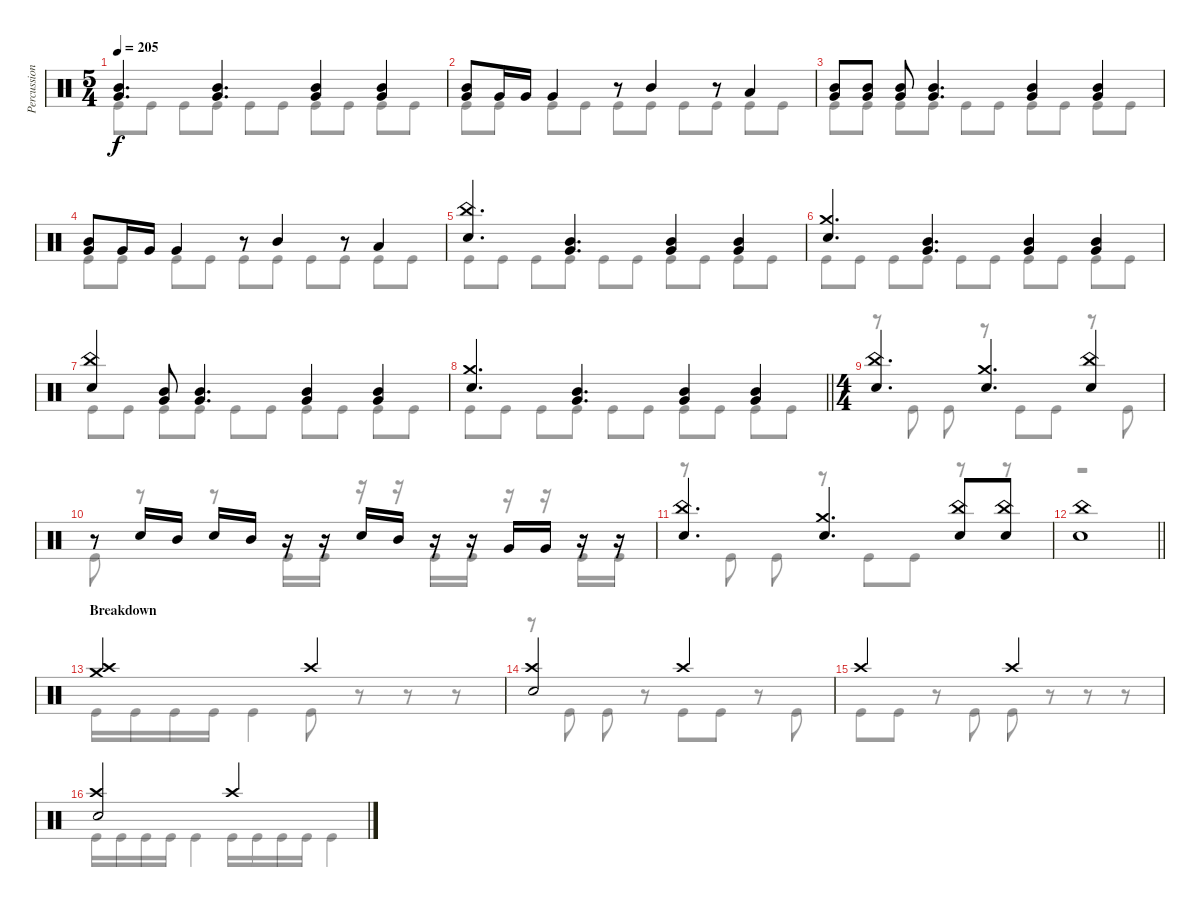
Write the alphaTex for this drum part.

\track ("Percussion" "Percussion") {instrument percussion}
\staff {score}
\articulation defaults
\voice
\ts (5 4)
\tempo 205
\clef neutral
\ks c
("Mid Tom (hit)" "Very Low Tom (hit)").4{d dy f} ("Mid Tom (hit)" "Very Low Tom (hit)").4{d} ("Mid Tom (hit)" "Very Low Tom (hit)").4 ("Mid Tom (hit)" "Very Low Tom (hit)").4 |
("Mid Tom (hit)" "Very Low Tom (hit)").8 "Very Low Tom (hit)".16 "Very Low Tom (hit)".16 "Very Low Tom (hit)".4 r.8 "Mid Tom (hit)".4 r.8 "Low Tom (hit)".4 |
("Mid Tom (hit)" "Very Low Tom (hit)").8 ("Mid Tom (hit)" "Very Low Tom (hit)").8 ("Mid Tom (hit)" "Very Low Tom (hit)").8 ("Mid Tom (hit)" "Very Low Tom (hit)").4{d} ("Mid Tom (hit)" "Very Low Tom (hit)").4 ("Mid Tom (hit)" "Very Low Tom (hit)").4 |
("Mid Tom (hit)" "Very Low Tom (hit)").8 "Very Low Tom (hit)".16 "Very Low Tom (hit)".16 "Very Low Tom (hit)".4 r.8 "Mid Tom (hit)".4 r.8 "Low Tom (hit)".4 |
("China (hit)" "Electric Snare (hit)").4{d} ("Mid Tom (hit)" "Very Low Tom (hit)").4{d} ("Mid Tom (hit)" "Very Low Tom (hit)").4 ("Mid Tom (hit)" "Very Low Tom (hit)").4 |
("Crash medium (hit)" "Electric Snare (hit)").4{d} ("Mid Tom (hit)" "Very Low Tom (hit)").4{d} ("Mid Tom (hit)" "Very Low Tom (hit)").4 ("Mid Tom (hit)" "Very Low Tom (hit)").4 |
("China (hit)" "Electric Snare (hit)").4 ("Mid Tom (hit)" "Very Low Tom (hit)").8 ("Mid Tom (hit)" "Very Low Tom (hit)").4{d} ("Mid Tom (hit)" "Very Low Tom (hit)").4 ("Mid Tom (hit)" "Very Low Tom (hit)").4 |
\barLineRight lightlight
("Crash medium (hit)" "Electric Snare (hit)").4{d} ("Mid Tom (hit)" "Very Low Tom (hit)").4{d} ("Mid Tom (hit)" "Very Low Tom (hit)").4 ("Mid Tom (hit)" "Very Low Tom (hit)").4 |
\ts (4 4)
\section ("" "")
("China (hit)" "Electric Snare (hit)").4{d} ("Crash medium (hit)" "Electric Snare (hit)").4{d} ("China (hit)" "Electric Snare (hit)").4 |
r.8 "Electric Snare (hit)".16 "Mid Tom (hit)".16 "Electric Snare (hit)".16 "Mid Tom (hit)".16 r.16 r.16 "Electric Snare (hit)".16 "Mid Tom (hit)".16 r.16 r.16 "Very Low Tom (hit)".16 "Very Low Tom (hit)".16 r.16 r.16 |
("China (hit)" "Electric Snare (hit)").4{d} ("Crash medium (hit)" "Electric Snare (hit)").4{d} ("China (hit)" "Electric Snare (hit)").8 ("China (hit)" "Electric Snare (hit)").8 |
\barLineRight lightlight
("China (hit)" "Electric Snare (hit)").1 |
\section ("" "Breakdown")
("Crash medium (hit)" "Crash high (hit)").2 "Crash high (hit)".2 |
("Crash high (hit)" "Electric Snare (hit)").2 "Crash high (hit)".2 |
"Crash high (hit)".2 "Crash high (hit)".2 |
("Crash high (hit)" "Electric Snare (hit)").2 "Crash high (hit)".2
\voice
\clef neutral
\ottava regular
\simile none
\ks c "Kick (hit)".8{dy f} "Kick (hit)".8 "Kick (hit)".8 "Kick (hit)".8 "Kick (hit)".8 "Kick (hit)".8 "Kick (hit)".8 "Kick (hit)".8 "Kick (hit)".8 "Kick (hit)".8
|
"Kick (hit)".8 "Kick (hit)".8 "Kick (hit)".8 "Kick (hit)".8 "Kick (hit)".8 "Kick (hit)".8 "Kick (hit)".8 "Kick (hit)".8 "Kick (hit)".8 "Kick (hit)".8 |
"Kick (hit)".8 "Kick (hit)".8 "Kick (hit)".8 "Kick (hit)".8 "Kick (hit)".8 "Kick (hit)".8 "Kick (hit)".8 "Kick (hit)".8 "Kick (hit)".8 "Kick (hit)".8 |
"Kick (hit)".8 "Kick (hit)".8 "Kick (hit)".8 "Kick (hit)".8 "Kick (hit)".8 "Kick (hit)".8 "Kick (hit)".8 "Kick (hit)".8 "Kick (hit)".8 "Kick (hit)".8 |
"Kick (hit)".8 "Kick (hit)".8 "Kick (hit)".8 "Kick (hit)".8 "Kick (hit)".8 "Kick (hit)".8 "Kick (hit)".8 "Kick (hit)".8 "Kick (hit)".8 "Kick (hit)".8 |
"Kick (hit)".8 "Kick (hit)".8 "Kick (hit)".8 "Kick (hit)".8 "Kick (hit)".8 "Kick (hit)".8 "Kick (hit)".8 "Kick (hit)".8 "Kick (hit)".8 "Kick (hit)".8 |
"Kick (hit)".8 "Kick (hit)".8 "Kick (hit)".8 "Kick (hit)".8 "Kick (hit)".8 "Kick (hit)".8 "Kick (hit)".8 "Kick (hit)".8 "Kick (hit)".8 "Kick (hit)".8 |
\barLineRight lightlight "Kick (hit)".8 "Kick (hit)".8 "Kick (hit)".8 "Kick (hit)".8 "Kick (hit)".8 "Kick (hit)".8 "Kick (hit)".8 "Kick (hit)".8 "Kick (hit)".8 "Kick (hit)".8
|
r.8 "Kick (hit)".8 "Kick (hit)".8 r.8 "Kick (hit)".8 "Kick (hit)".8 r.8 "Kick (hit)".8 |
"Kick (hit)".8 r.8 r.8 "Kick (hit)".16 "Kick (hit)".16 r.16 r.16 "Kick (hit)".16 "Kick (hit)".16 r.16 r.16 "Kick (hit)".16 "Kick (hit)".16 |
r.8 "Kick (hit)".8 "Kick (hit)".8 r.8 "Kick (hit)".8 "Kick (hit)".8 r.8 r.8 |
\barLineRight lightlight
r.1 |
"Kick (hit)".16 "Kick (hit)".16 "Kick (hit)".16 "Kick (hit)".16 "Kick (hit)".4 "Kick (hit)".8 r.8 r.8 r.8 |
r.8 "Kick (hit)".8 "Kick (hit)".8 r.8 "Kick (hit)".8 "Kick (hit)".8 r.8 "Kick (hit)".8 |
"Kick (hit)".8 "Kick (hit)".8 r.8 "Kick (hit)".8 "Kick (hit)".8 r.8 r.8 r.8 |
"Kick (hit)".16 "Kick (hit)".16 "Kick (hit)".16 "Kick (hit)".16 "Kick (hit)".4 "Kick (hit)".16 "Kick (hit)".16 "Kick (hit)".16 "Kick (hit)".16 "Kick (hit)".4
